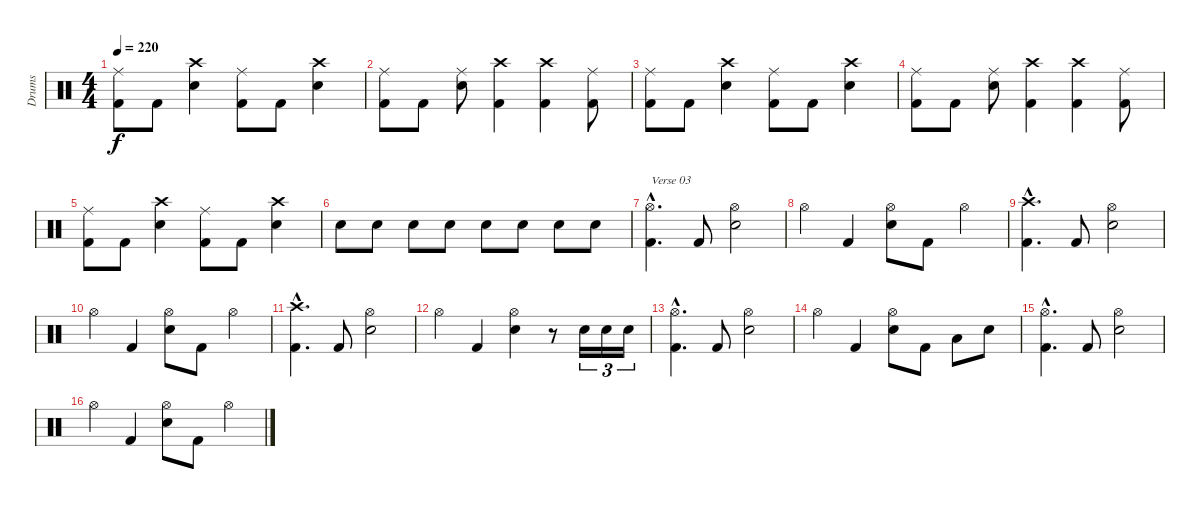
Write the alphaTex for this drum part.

\track ("Drums" "Drums") {instrument percussion}
\staff {score}
\articulation defaults
\ts (4 4)
\tempo 220
\clef neutral
\ks c
("Ride (middle)" "Kick (hit) 2").8{dy f} "Kick (hit) 2".8 ("Crash high (hit)" "Snare (hit) 2").4 ("Ride (middle)" "Kick (hit) 2").8 "Kick (hit) 2".8 ("Crash high (hit)" "Snare (hit) 2").4 |
("Ride (middle)" "Kick (hit) 2").8 "Kick (hit) 2".8 ("Ride (middle)" "Snare (hit) 2").8 ("Crash high (hit)" "Kick (hit) 2").4 ("Crash high (hit)" "Kick (hit) 2").4 ("Ride (middle)" "Kick (hit) 2").8 |
("Ride (middle)" "Kick (hit) 2").8 "Kick (hit) 2".8 ("Crash high (hit)" "Snare (hit) 2").4 ("Ride (middle)" "Kick (hit) 2").8 "Kick (hit) 2".8 ("Crash high (hit)" "Snare (hit) 2").4 |
("Ride (middle)" "Kick (hit) 2").8 "Kick (hit) 2".8 ("Ride (middle)" "Snare (hit) 2").8 ("Crash high (hit)" "Kick (hit) 2").4 ("Crash high (hit)" "Kick (hit) 2").4 ("Ride (middle)" "Kick (hit) 2").8 |
("Ride (middle)" "Kick (hit) 2").8 "Kick (hit) 2".8 ("Crash high (hit)" "Snare (hit) 2").4 ("Ride (middle)" "Kick (hit) 2").8 "Kick (hit) 2".8 ("Crash high (hit)" "Snare (hit) 2").4 |
"Snare (hit) 2".8 "Snare (hit) 2".8 "Snare (hit) 2".8 "Snare (hit) 2".8 "Snare (hit) 2".8 "Snare (hit) 2".8 "Snare (hit) 2".8 "Snare (hit) 2".8 |
("Hi-Hat (open)"{hac} "Kick (hit) 2"{hac}).4{d txt "Verse 03"} "Kick (hit) 2".8 ("Hi-Hat (open)" "Snare (hit) 2").2 |
"Hi-Hat (open)".4 "Kick (hit) 2".4 ("Hi-Hat (open)" "Snare (hit) 2").8 "Kick (hit) 2".8 "Hi-Hat (open)".4 |
("Crash high (hit)"{hac} "Kick (hit) 2"{hac}).4{d} "Kick (hit) 2".8 ("Hi-Hat (open)" "Snare (hit) 2").2 |
"Hi-Hat (open)".4 "Kick (hit) 2".4 ("Hi-Hat (open)" "Snare (hit) 2").8 "Kick (hit) 2".8 "Hi-Hat (open)".4 |
("Crash high (hit)"{hac} "Kick (hit) 2"{hac}).4{d} "Kick (hit) 2".8 ("Hi-Hat (open)" "Snare (hit) 2").2 |
"Hi-Hat (open)".4 "Kick (hit) 2".4 ("Hi-Hat (open)" "Snare (hit) 2").4 r.8 "Snare (hit) 2".16{tu (3 2)} "Snare (hit) 2".16{tu (3 2)} "Snare (hit) 2".16{tu (3 2)} |
("Hi-Hat (open)"{hac} "Kick (hit) 2"{hac}).4{d} "Kick (hit) 2".8 ("Hi-Hat (open)" "Snare (hit) 2").2 |
"Hi-Hat (open)".4 "Kick (hit) 2".4 ("Hi-Hat (open)" "Snare (hit) 2").8 "Kick (hit) 2".8 "Low Tom (hit)".8 "Snare (hit) 2".8 |
("Hi-Hat (open)"{hac} "Kick (hit) 2"{hac}).4{d} "Kick (hit) 2".8 ("Hi-Hat (open)" "Snare (hit) 2").2 |
"Hi-Hat (open)".4 "Kick (hit) 2".4 ("Hi-Hat (open)" "Snare (hit) 2").8 "Kick (hit) 2".8 "Hi-Hat (open)".4
